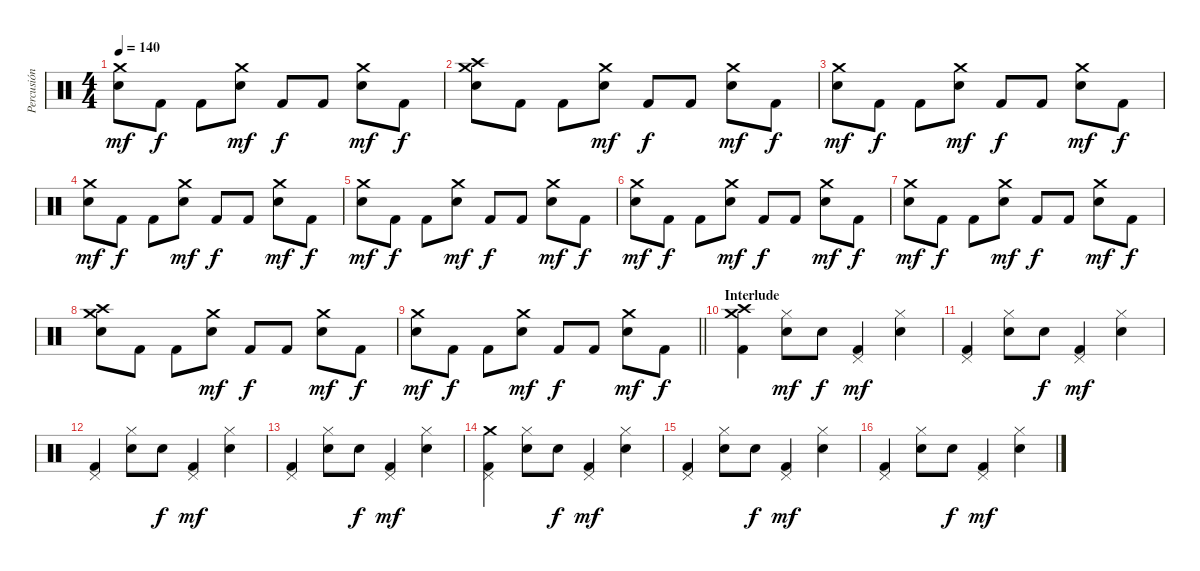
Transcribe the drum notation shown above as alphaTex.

\track ("Percusión" "Percusión") {instrument percussion}
\staff {score}
\articulation defaults
\ts (4 4)
\tempo 140
\clef neutral
\ks c
("Crash medium (hit)" "Electric Snare (hit)").8{dy mf} "Kick (hit) 2".8{dy f} "Kick (hit) 2".8 ("Crash medium (hit)" "Electric Snare (hit)").8{dy mf} "Kick (hit) 2".8{dy f} "Kick (hit) 2".8 ("Crash medium (hit)" "Electric Snare (hit)").8{dy mf} "Kick (hit) 2".8{dy f} |
("Crash medium (hit)" "Crash high (hit)" "Electric Snare (hit)").8 "Kick (hit) 2".8 "Kick (hit) 2".8 ("Crash medium (hit)" "Electric Snare (hit)").8{dy mf} "Kick (hit) 2".8{dy f} "Kick (hit) 2".8 ("Crash medium (hit)" "Electric Snare (hit)").8{dy mf} "Kick (hit) 2".8{dy f} |
("Crash medium (hit)" "Electric Snare (hit)").8{dy mf} "Kick (hit) 2".8{dy f} "Kick (hit) 2".8 ("Crash medium (hit)" "Electric Snare (hit)").8{dy mf} "Kick (hit) 2".8{dy f} "Kick (hit) 2".8 ("Crash medium (hit)" "Electric Snare (hit)").8{dy mf} "Kick (hit) 2".8{dy f} |
("Crash medium (hit)" "Electric Snare (hit)").8{dy mf} "Kick (hit) 2".8{dy f} "Kick (hit) 2".8 ("Crash medium (hit)" "Electric Snare (hit)").8{dy mf} "Kick (hit) 2".8{dy f} "Kick (hit) 2".8 ("Crash medium (hit)" "Electric Snare (hit)").8{dy mf} "Kick (hit) 2".8{dy f} |
("Crash medium (hit)" "Electric Snare (hit)").8{dy mf} "Kick (hit) 2".8{dy f} "Kick (hit) 2".8 ("Crash medium (hit)" "Electric Snare (hit)").8{dy mf} "Kick (hit) 2".8{dy f} "Kick (hit) 2".8 ("Crash medium (hit)" "Electric Snare (hit)").8{dy mf} "Kick (hit) 2".8{dy f} |
("Crash medium (hit)" "Electric Snare (hit)").8{dy mf} "Kick (hit) 2".8{dy f} "Kick (hit) 2".8 ("Crash medium (hit)" "Electric Snare (hit)").8{dy mf} "Kick (hit) 2".8{dy f} "Kick (hit) 2".8 ("Crash medium (hit)" "Electric Snare (hit)").8{dy mf} "Kick (hit) 2".8{dy f} |
("Crash medium (hit)" "Electric Snare (hit)").8{dy mf} "Kick (hit) 2".8{dy f} "Kick (hit) 2".8 ("Crash medium (hit)" "Electric Snare (hit)").8{dy mf} "Kick (hit) 2".8{dy f} "Kick (hit) 2".8 ("Crash medium (hit)" "Electric Snare (hit)").8{dy mf} "Kick (hit) 2".8{dy f} |
("Crash medium (hit)" "Crash high (hit)" "Electric Snare (hit)").8 "Kick (hit) 2".8 "Kick (hit) 2".8 ("Crash medium (hit)" "Electric Snare (hit)").8{dy mf} "Kick (hit) 2".8{dy f} "Kick (hit) 2".8 ("Crash medium (hit)" "Electric Snare (hit)").8{dy mf} "Kick (hit) 2".8{dy f} |
\barLineRight lightlight
("Crash medium (hit)" "Electric Snare (hit)").8{dy mf} "Kick (hit) 2".8{dy f} "Kick (hit) 2".8 ("Crash medium (hit)" "Electric Snare (hit)").8{dy mf} "Kick (hit) 2".8{dy f} "Kick (hit) 2".8 ("Crash medium (hit)" "Electric Snare (hit)").8{dy mf} "Kick (hit) 2".8{dy f} |
\section ("" "Interlude")
("Crash medium (hit)" "Crash high (hit)" "Kick (hit) 2").4 ("Hi-Hat (closed)" "Electric Snare (hit)").8{dy mf} "Electric Snare (hit)".8{dy f} ("Pedal Hi-Hat (hit)" "Kick (hit) 2").4{dy mf} ("Hi-Hat (closed)" "Electric Snare (hit)").4 |
("Pedal Hi-Hat (hit)" "Kick (hit) 2").4 ("Hi-Hat (closed)" "Electric Snare (hit)").8 "Electric Snare (hit)".8{dy f} ("Pedal Hi-Hat (hit)" "Kick (hit) 2").4{dy mf} ("Hi-Hat (closed)" "Electric Snare (hit)").4 |
("Pedal Hi-Hat (hit)" "Kick (hit) 2").4 ("Hi-Hat (closed)" "Electric Snare (hit)").8 "Electric Snare (hit)".8{dy f} ("Pedal Hi-Hat (hit)" "Kick (hit) 2").4{dy mf} ("Hi-Hat (closed)" "Electric Snare (hit)").4 |
("Pedal Hi-Hat (hit)" "Kick (hit) 2").4 ("Hi-Hat (closed)" "Electric Snare (hit)").8 "Electric Snare (hit)".8{dy f} ("Pedal Hi-Hat (hit)" "Kick (hit) 2").4{dy mf} ("Hi-Hat (closed)" "Electric Snare (hit)").4 |
("Pedal Hi-Hat (hit)" "Crash medium (hit)" "Kick (hit) 2").4 ("Hi-Hat (closed)" "Electric Snare (hit)").8 "Electric Snare (hit)".8{dy f} ("Pedal Hi-Hat (hit)" "Kick (hit) 2").4{dy mf} ("Hi-Hat (closed)" "Electric Snare (hit)").4 |
("Pedal Hi-Hat (hit)" "Kick (hit) 2").4 ("Hi-Hat (closed)" "Electric Snare (hit)").8 "Electric Snare (hit)".8{dy f} ("Pedal Hi-Hat (hit)" "Kick (hit) 2").4{dy mf} ("Hi-Hat (closed)" "Electric Snare (hit)").4 |
("Pedal Hi-Hat (hit)" "Kick (hit) 2").4 ("Hi-Hat (closed)" "Electric Snare (hit)").8 "Electric Snare (hit)".8{dy f} ("Pedal Hi-Hat (hit)" "Kick (hit) 2").4{dy mf} ("Hi-Hat (closed)" "Electric Snare (hit)").4
